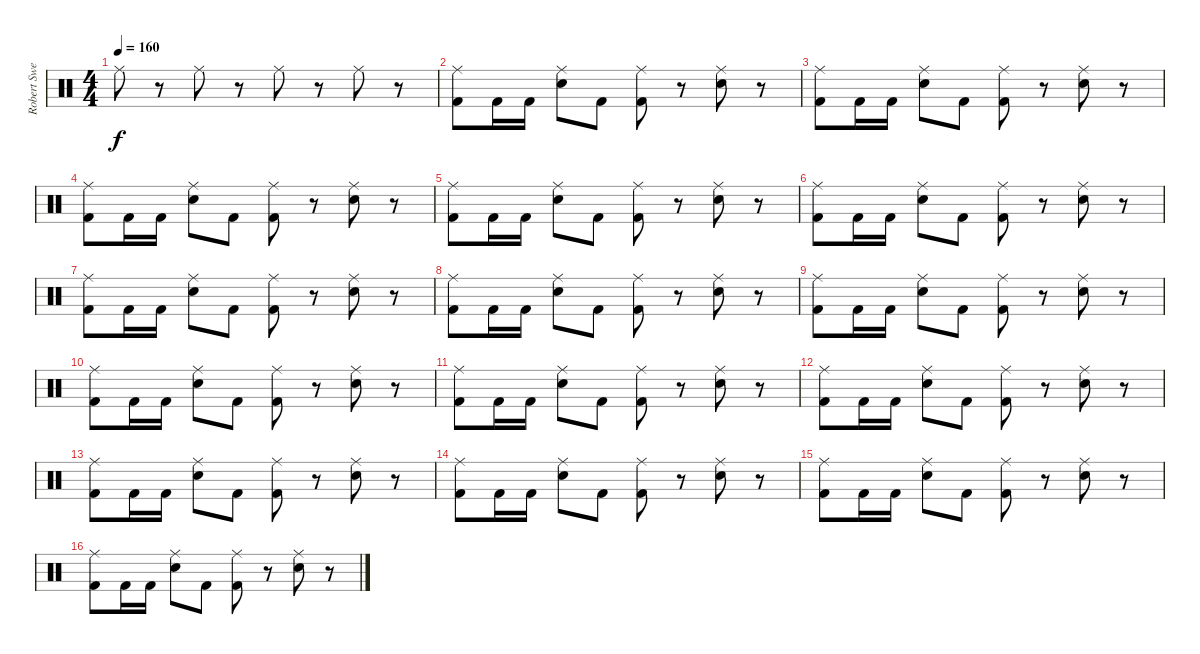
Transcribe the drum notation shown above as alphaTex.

\track ("Robert Sweet" "Robert Swe") {instrument percussion}
\staff {score}
\articulation defaults
\ts (4 4)
\tempo 160
\clef neutral
\ks c "Ride (middle)".8{dy f}
r.8 "Ride (middle)".8 r.8 "Ride (middle)".8 r.8 "Ride (middle)".8 r.8 |
("Ride (middle)" "Kick (hit) 2").8 "Kick (hit) 2".16 "Kick (hit) 2".16 ("Ride (middle)" "Electric Snare (hit)").8 "Kick (hit) 2".8 ("Ride (middle)" "Kick (hit) 2").8 r.8 ("Ride (middle)" "Electric Snare (hit)").8 r.8 |
("Ride (middle)" "Kick (hit) 2").8 "Kick (hit) 2".16 "Kick (hit) 2".16 ("Ride (middle)" "Electric Snare (hit)").8 "Kick (hit) 2".8 ("Ride (middle)" "Kick (hit) 2").8 r.8 ("Ride (middle)" "Electric Snare (hit)").8 r.8 |
("Ride (middle)" "Kick (hit) 2").8 "Kick (hit) 2".16 "Kick (hit) 2".16 ("Ride (middle)" "Electric Snare (hit)").8 "Kick (hit) 2".8 ("Ride (middle)" "Kick (hit) 2").8 r.8 ("Ride (middle)" "Electric Snare (hit)").8 r.8 |
("Ride (middle)" "Kick (hit) 2").8 "Kick (hit) 2".16 "Kick (hit) 2".16 ("Ride (middle)" "Electric Snare (hit)").8 "Kick (hit) 2".8 ("Ride (middle)" "Kick (hit) 2").8 r.8 ("Ride (middle)" "Electric Snare (hit)").8 r.8 |
("Ride (middle)" "Kick (hit) 2").8 "Kick (hit) 2".16 "Kick (hit) 2".16 ("Ride (middle)" "Electric Snare (hit)").8 "Kick (hit) 2".8 ("Ride (middle)" "Kick (hit) 2").8 r.8 ("Ride (middle)" "Electric Snare (hit)").8 r.8 |
("Ride (middle)" "Kick (hit) 2").8 "Kick (hit) 2".16 "Kick (hit) 2".16 ("Ride (middle)" "Electric Snare (hit)").8 "Kick (hit) 2".8 ("Ride (middle)" "Kick (hit) 2").8 r.8 ("Ride (middle)" "Electric Snare (hit)").8 r.8 |
("Ride (middle)" "Kick (hit) 2").8 "Kick (hit) 2".16 "Kick (hit) 2".16 ("Ride (middle)" "Electric Snare (hit)").8 "Kick (hit) 2".8 ("Ride (middle)" "Kick (hit) 2").8 r.8 ("Ride (middle)" "Electric Snare (hit)").8 r.8 |
("Ride (middle)" "Kick (hit) 2").8 "Kick (hit) 2".16 "Kick (hit) 2".16 ("Ride (middle)" "Electric Snare (hit)").8 "Kick (hit) 2".8 ("Ride (middle)" "Kick (hit) 2").8 r.8 ("Ride (middle)" "Electric Snare (hit)").8 r.8 |
("Ride (middle)" "Kick (hit) 2").8 "Kick (hit) 2".16 "Kick (hit) 2".16 ("Ride (middle)" "Electric Snare (hit)").8 "Kick (hit) 2".8 ("Ride (middle)" "Kick (hit) 2").8 r.8 ("Ride (middle)" "Electric Snare (hit)").8 r.8 |
("Ride (middle)" "Kick (hit) 2").8 "Kick (hit) 2".16 "Kick (hit) 2".16 ("Ride (middle)" "Electric Snare (hit)").8 "Kick (hit) 2".8 ("Ride (middle)" "Kick (hit) 2").8 r.8 ("Ride (middle)" "Electric Snare (hit)").8 r.8 |
("Ride (middle)" "Kick (hit) 2").8 "Kick (hit) 2".16 "Kick (hit) 2".16 ("Ride (middle)" "Electric Snare (hit)").8 "Kick (hit) 2".8 ("Ride (middle)" "Kick (hit) 2").8 r.8 ("Ride (middle)" "Electric Snare (hit)").8 r.8 |
("Ride (middle)" "Kick (hit) 2").8 "Kick (hit) 2".16 "Kick (hit) 2".16 ("Ride (middle)" "Electric Snare (hit)").8 "Kick (hit) 2".8 ("Ride (middle)" "Kick (hit) 2").8 r.8 ("Ride (middle)" "Electric Snare (hit)").8 r.8 |
("Ride (middle)" "Kick (hit) 2").8 "Kick (hit) 2".16 "Kick (hit) 2".16 ("Ride (middle)" "Electric Snare (hit)").8 "Kick (hit) 2".8 ("Ride (middle)" "Kick (hit) 2").8 r.8 ("Ride (middle)" "Electric Snare (hit)").8 r.8 |
("Ride (middle)" "Kick (hit) 2").8 "Kick (hit) 2".16 "Kick (hit) 2".16 ("Ride (middle)" "Electric Snare (hit)").8 "Kick (hit) 2".8 ("Ride (middle)" "Kick (hit) 2").8 r.8 ("Ride (middle)" "Electric Snare (hit)").8 r.8 |
("Ride (middle)" "Kick (hit) 2").8 "Kick (hit) 2".16 "Kick (hit) 2".16 ("Ride (middle)" "Electric Snare (hit)").8 "Kick (hit) 2".8 ("Ride (middle)" "Kick (hit) 2").8 r.8 ("Ride (middle)" "Electric Snare (hit)").8 r.8
